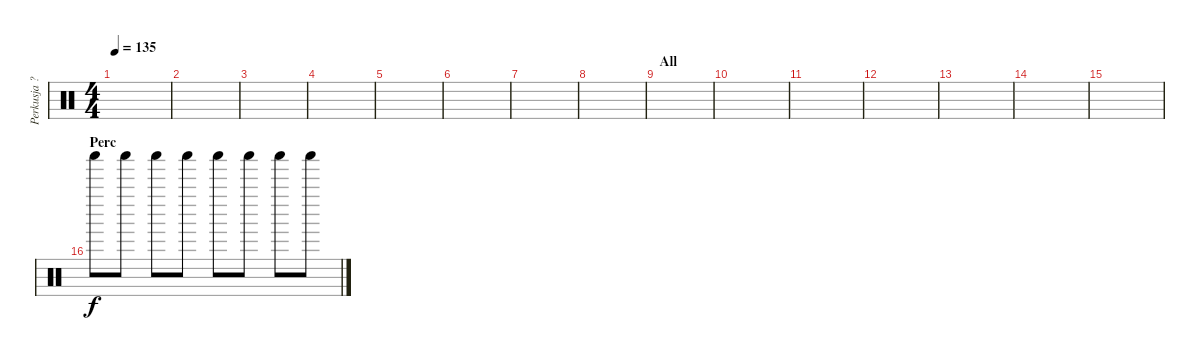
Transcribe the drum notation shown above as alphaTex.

\track ("Perkusja ?" "Perkusja ?") {instrument percussion}
\staff {score}
\articulation defaults
\ts (4 4)
\tempo 135
\clef neutral
\ks c
|
|
|
|
|
|
|
|
\section ("" "All")
|
|
|
|
|
|
|
\section ("" "Perc")
"Shaker (hit)".8 "Shaker (hit)".8{dy f} "Shaker (hit)".8 "Shaker (hit)".8 "Shaker (hit)".8 "Shaker (hit)".8 "Shaker (hit)".8 "Shaker (hit)".8
